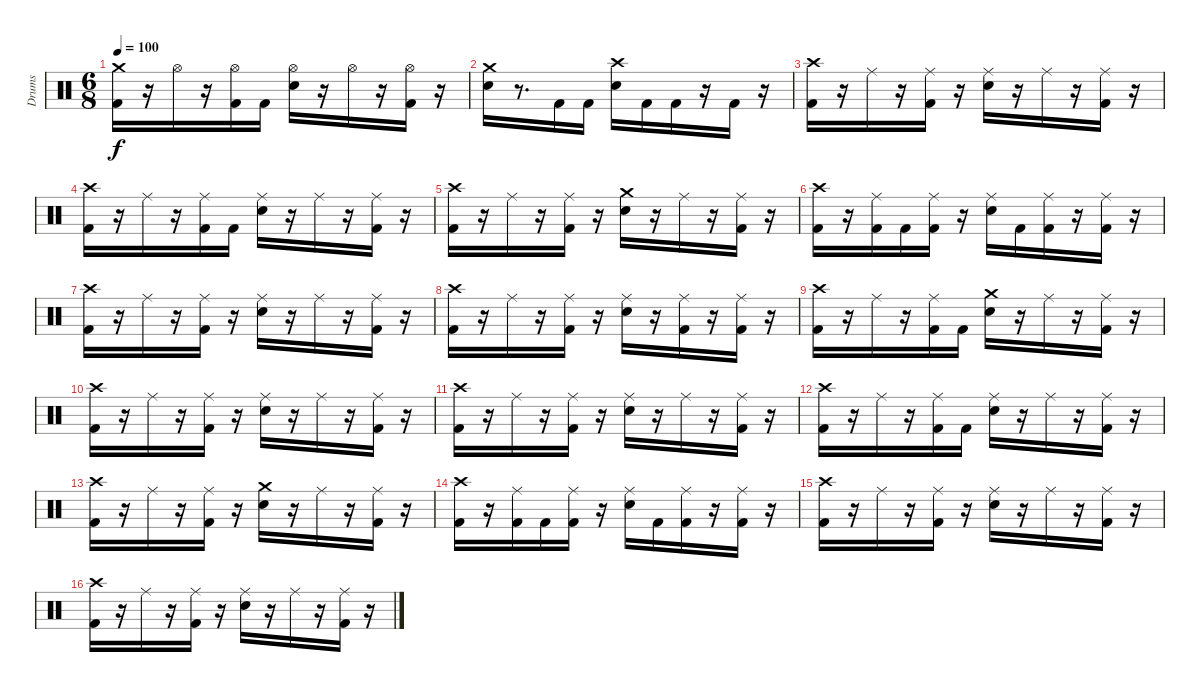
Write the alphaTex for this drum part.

\track ("Drums" "Drums") {instrument percussion}
\staff {score}
\articulation defaults
\ts (6 8)
\tempo 100
\clef neutral
\ks c
("Kick (hit) 2" "Crash medium (hit)").16{dy f} r.16 "Hi-Hat (open)".16 r.16 ("Kick (hit) 2" "Hi-Hat (open)").16 "Kick (hit) 2".16 ("Snare (hit) 2" "Hi-Hat (open)").16 r.16 "Hi-Hat (open)".16 r.16 ("Kick (hit) 2" "Hi-Hat (open)").16 r.16 |
("Snare (hit) 2" "Crash medium (hit)").16 r.8{d} "Kick (hit) 2".16 "Kick (hit) 2".16 ("Snare (hit) 2" "Crash high (hit)").16 "Kick (hit) 2".16 "Kick (hit) 2".16 r.16 "Kick (hit) 2".16 r.16 |
("Kick (hit) 2" "Crash high (hit)").16 r.16 "Ride (middle)".16 r.16 ("Kick (hit) 2" "Ride (middle)").16 r.16 ("Snare (hit) 2" "Ride (middle)").16 r.16 "Ride (middle)".16 r.16 ("Kick (hit) 2" "Ride (middle)").16 r.16 |
("Kick (hit) 2" "Crash high (hit)").16 r.16 "Ride (middle)".16 r.16 ("Kick (hit) 2" "Ride (middle)").16 "Kick (hit) 2".16 ("Snare (hit) 2" "Ride (middle)").16 r.16 "Ride (middle)".16 r.16 ("Kick (hit) 2" "Ride (middle)").16 r.16 |
("Kick (hit) 2" "Crash high (hit)").16 r.16 "Ride (middle)".16 r.16 ("Kick (hit) 2" "Ride (middle)").16 r.16 ("Snare (hit) 2" "Crash medium (hit)").16 r.16 "Ride (middle)".16 r.16 ("Kick (hit) 2" "Ride (middle)").16 r.16 |
("Kick (hit) 2" "Crash high (hit)").16 r.16 ("Kick (hit) 2" "Ride (middle)").16 "Kick (hit) 2".16 ("Kick (hit) 2" "Ride (middle)").16 r.16 ("Snare (hit) 2" "Ride (middle)").16 "Kick (hit) 2".16 ("Kick (hit) 2" "Ride (middle)").16 r.16 ("Kick (hit) 2" "Ride (middle)").16 r.16 |
("Kick (hit) 2" "Crash high (hit)").16 r.16 "Ride (middle)".16 r.16 ("Kick (hit) 2" "Ride (middle)").16 r.16 ("Snare (hit) 2" "Ride (middle)").16 r.16 "Ride (middle)".16 r.16 ("Kick (hit) 2" "Ride (middle)").16 r.16 |
("Kick (hit) 2" "Crash high (hit)").16 r.16 "Ride (middle)".16 r.16 ("Kick (hit) 2" "Ride (middle)").16 r.16 ("Snare (hit) 2" "Ride (middle)").16 r.16 ("Kick (hit) 2" "Ride (middle)").16 r.16 ("Kick (hit) 2" "Ride (middle)").16 r.16 |
("Kick (hit) 2" "Crash high (hit)").16 r.16 "Ride (middle)".16 r.16 ("Kick (hit) 2" "Ride (middle)").16 "Kick (hit) 2".16 ("Snare (hit) 2" "Crash medium (hit)").16 r.16 "Ride (middle)".16 r.16 ("Kick (hit) 2" "Ride (middle)").16 r.16 |
("Kick (hit) 2" "Crash high (hit)").16 r.16 "Ride (middle)".16 r.16 ("Kick (hit) 2" "Ride (middle)").16 r.16 ("Snare (hit) 2" "Ride (middle)").16 r.16 "Ride (middle)".16 r.16 ("Kick (hit) 2" "Ride (middle)").16 r.16 |
("Kick (hit) 2" "Crash high (hit)").16 r.16 "Ride (middle)".16 r.16 ("Kick (hit) 2" "Ride (middle)").16 r.16 ("Snare (hit) 2" "Ride (middle)").16 r.16 "Ride (middle)".16 r.16 ("Kick (hit) 2" "Ride (middle)").16 r.16 |
("Kick (hit) 2" "Crash high (hit)").16 r.16 "Ride (middle)".16 r.16 ("Kick (hit) 2" "Ride (middle)").16 "Kick (hit) 2".16 ("Snare (hit) 2" "Ride (middle)").16 r.16 "Ride (middle)".16 r.16 ("Kick (hit) 2" "Ride (middle)").16 r.16 |
("Kick (hit) 2" "Crash high (hit)").16 r.16 "Ride (middle)".16 r.16 ("Kick (hit) 2" "Ride (middle)").16 r.16 ("Snare (hit) 2" "Crash medium (hit)").16 r.16 "Ride (middle)".16 r.16 ("Kick (hit) 2" "Ride (middle)").16 r.16 |
("Kick (hit) 2" "Crash high (hit)").16 r.16 ("Kick (hit) 2" "Ride (middle)").16 "Kick (hit) 2".16 ("Kick (hit) 2" "Ride (middle)").16 r.16 ("Snare (hit) 2" "Ride (middle)").16 "Kick (hit) 2".16 ("Kick (hit) 2" "Ride (middle)").16 r.16 ("Kick (hit) 2" "Ride (middle)").16 r.16 |
("Kick (hit) 2" "Crash high (hit)").16 r.16 "Ride (middle)".16 r.16 ("Kick (hit) 2" "Ride (middle)").16 r.16 ("Snare (hit) 2" "Ride (middle)").16 r.16 "Ride (middle)".16 r.16 ("Kick (hit) 2" "Ride (middle)").16 r.16 |
("Kick (hit) 2" "Crash high (hit)").16 r.16 "Ride (middle)".16 r.16 ("Kick (hit) 2" "Ride (middle)").16 r.16 ("Snare (hit) 2" "Ride (middle)").16 r.16 "Ride (middle)".16 r.16 ("Kick (hit) 2" "Ride (middle)").16 r.16
